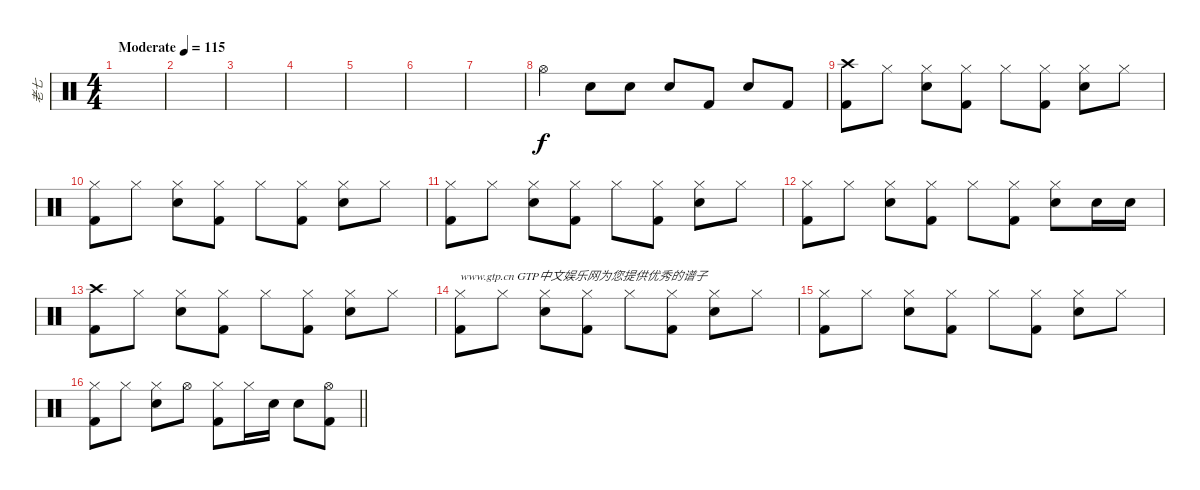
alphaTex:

\track ("老七" "老七") {instrument percussion}
\staff {score}
\articulation defaults
\ts (4 4)
\tempo (115 "Moderate")
\clef neutral
\ks c
|
|
|
|
|
|
|
"Hi-Hat (open)".4 "Electric Snare (hit)".8 "Electric Snare (hit)".8 "Electric Snare (hit)".8 "Kick (hit) 2".8 "Electric Snare (hit)".8 "Kick (hit) 2".8 |
("Crash high (hit)" "Kick (hit) 2").8 "Hi-Hat (closed)".8 ("Hi-Hat (closed)" "Electric Snare (hit)").8 ("Hi-Hat (closed)" "Kick (hit) 2").8 "Hi-Hat (closed)".8 ("Hi-Hat (closed)" "Kick (hit) 2").8 ("Hi-Hat (closed)" "Electric Snare (hit)").8 "Hi-Hat (closed)".8 |
("Hi-Hat (closed)" "Kick (hit) 2").8 "Hi-Hat (closed)".8 ("Hi-Hat (closed)" "Electric Snare (hit)").8 ("Hi-Hat (closed)" "Kick (hit) 2").8 "Hi-Hat (closed)".8 ("Hi-Hat (closed)" "Kick (hit) 2").8 ("Hi-Hat (closed)" "Electric Snare (hit)").8 "Hi-Hat (closed)".8 |
("Hi-Hat (closed)" "Kick (hit) 2").8 "Hi-Hat (closed)".8 ("Hi-Hat (closed)" "Electric Snare (hit)").8 ("Hi-Hat (closed)" "Kick (hit) 2").8 "Hi-Hat (closed)".8 ("Hi-Hat (closed)" "Kick (hit) 2").8 ("Hi-Hat (closed)" "Electric Snare (hit)").8 "Hi-Hat (closed)".8 |
("Hi-Hat (closed)" "Kick (hit) 2").8 "Hi-Hat (closed)".8 ("Hi-Hat (closed)" "Electric Snare (hit)").8 ("Hi-Hat (closed)" "Kick (hit) 2").8 "Hi-Hat (closed)".8 ("Hi-Hat (closed)" "Kick (hit) 2").8 ("Hi-Hat (closed)" "Electric Snare (hit)").8 "Electric Snare (hit)".16 "Electric Snare (hit)".16 |
("Crash high (hit)" "Kick (hit) 2").8 "Hi-Hat (closed)".8 ("Hi-Hat (closed)" "Electric Snare (hit)").8 ("Hi-Hat (closed)" "Kick (hit) 2").8 "Hi-Hat (closed)".8 ("Hi-Hat (closed)" "Kick (hit) 2").8 ("Hi-Hat (closed)" "Electric Snare (hit)").8 "Hi-Hat (closed)".8 |
("Hi-Hat (closed)" "Kick (hit) 2").8{txt "www.gtp.cn GTP中文娱乐网为您提供优秀的谱子"} "Hi-Hat (closed)".8 ("Hi-Hat (closed)" "Electric Snare (hit)").8 ("Hi-Hat (closed)" "Kick (hit) 2").8 "Hi-Hat (closed)".8 ("Hi-Hat (closed)" "Kick (hit) 2").8 ("Hi-Hat (closed)" "Electric Snare (hit)").8 "Hi-Hat (closed)".8 |
("Hi-Hat (closed)" "Kick (hit) 2").8 "Hi-Hat (closed)".8 ("Hi-Hat (closed)" "Electric Snare (hit)").8 ("Hi-Hat (closed)" "Kick (hit) 2").8 "Hi-Hat (closed)".8 ("Hi-Hat (closed)" "Kick (hit) 2").8 ("Hi-Hat (closed)" "Electric Snare (hit)").8 "Hi-Hat (closed)".8 |
\barLineRight lightlight
("Hi-Hat (closed)" "Kick (hit) 2").8 "Hi-Hat (closed)".8 ("Hi-Hat (closed)" "Electric Snare (hit)").8 "Hi-Hat (open)".8 ("Hi-Hat (closed)" "Kick (hit) 2").8 "Hi-Hat (closed)".16 "Electric Snare (hit)".16 "Electric Snare (hit)".8 ("Hi-Hat (open)" "Kick (hit) 2").8
